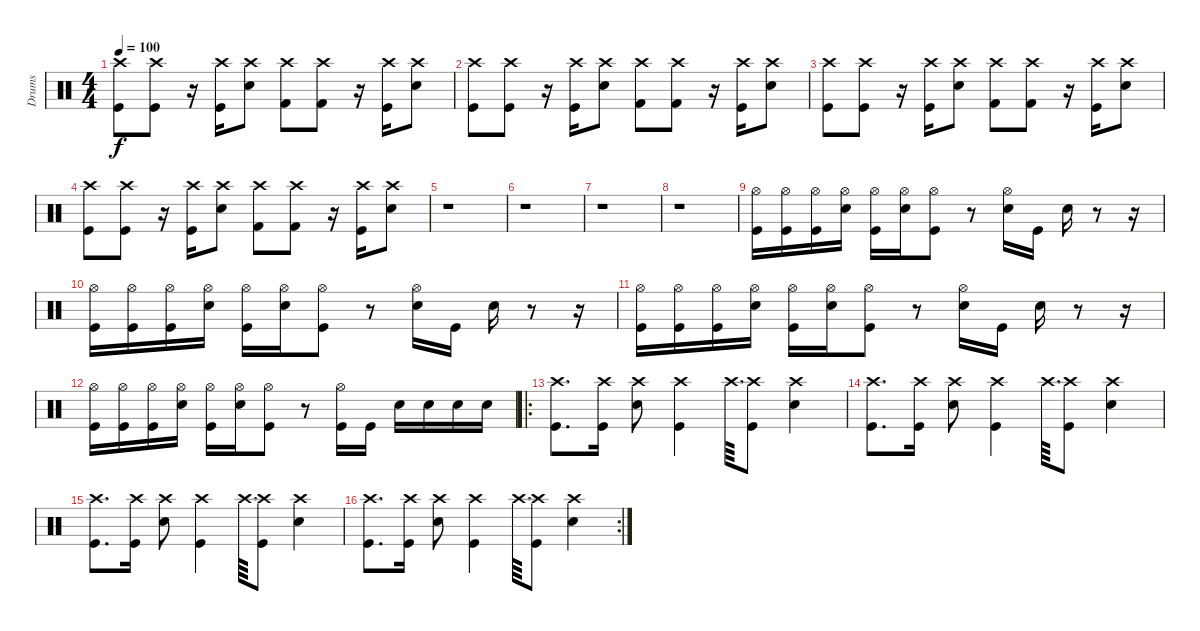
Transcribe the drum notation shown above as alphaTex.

\track ("Drums" "Drums") {instrument percussion}
\staff {score}
\articulation defaults
\ts (4 4)
\tempo 100
\clef neutral
\ks c
("Crash high (hit)" "Kick (hit)").8{dy f} ("Crash high (hit)" "Kick (hit)").8 r.16 ("Crash high (hit)" "Kick (hit)").16 ("Crash high (hit)" "Snare (hit) 2").8 ("Crash high (hit)" "Kick (hit) 2").8 ("Crash high (hit)" "Kick (hit) 2").8 r.16 ("Crash high (hit)" "Kick (hit)").16 ("Crash high (hit)" "Snare (hit) 2").8 |
("Crash high (hit)" "Kick (hit)").8 ("Crash high (hit)" "Kick (hit)").8 r.16 ("Crash high (hit)" "Kick (hit)").16 ("Crash high (hit)" "Snare (hit) 2").8 ("Crash high (hit)" "Kick (hit) 2").8 ("Crash high (hit)" "Kick (hit) 2").8 r.16 ("Crash high (hit)" "Kick (hit)").16 ("Crash high (hit)" "Snare (hit) 2").8 |
("Crash high (hit)" "Kick (hit)").8 ("Crash high (hit)" "Kick (hit)").8 r.16 ("Crash high (hit)" "Kick (hit)").16 ("Crash high (hit)" "Snare (hit) 2").8 ("Crash high (hit)" "Kick (hit) 2").8 ("Crash high (hit)" "Kick (hit) 2").8 r.16 ("Crash high (hit)" "Kick (hit)").16 ("Crash high (hit)" "Snare (hit) 2").8 |
("Crash high (hit)" "Kick (hit)").8 ("Crash high (hit)" "Kick (hit)").8 r.16 ("Crash high (hit)" "Kick (hit)").16 ("Crash high (hit)" "Snare (hit) 2").8 ("Crash high (hit)" "Kick (hit) 2").8 ("Crash high (hit)" "Kick (hit) 2").8 r.16 ("Crash high (hit)" "Kick (hit)").16 ("Crash high (hit)" "Snare (hit) 2").8 |
r.1 |
r.1 |
r.1 |
r.1 |
("Hi-Hat (open)" "Kick (hit)").16 ("Hi-Hat (open)" "Kick (hit)").16 ("Hi-Hat (open)" "Kick (hit)").16 ("Hi-Hat (open)" "Snare (hit) 2").16 ("Hi-Hat (open)" "Kick (hit)").16 ("Hi-Hat (open)" "Snare (hit) 2").16 ("Hi-Hat (open)" "Kick (hit)").8 r.8 ("Hi-Hat (open)" "Snare (hit) 2").16 "Kick (hit)".16 "Snare (hit) 2".16 r.8 r.16 |
("Hi-Hat (open)" "Kick (hit)").16 ("Hi-Hat (open)" "Kick (hit)").16 ("Hi-Hat (open)" "Kick (hit)").16 ("Hi-Hat (open)" "Snare (hit) 2").16 ("Hi-Hat (open)" "Kick (hit)").16 ("Hi-Hat (open)" "Snare (hit) 2").16 ("Hi-Hat (open)" "Kick (hit)").8 r.8 ("Hi-Hat (open)" "Snare (hit) 2").16 "Kick (hit)".16 "Snare (hit) 2".16 r.8 r.16 |
("Hi-Hat (open)" "Kick (hit)").16 ("Hi-Hat (open)" "Kick (hit)").16 ("Hi-Hat (open)" "Kick (hit)").16 ("Hi-Hat (open)" "Snare (hit) 2").16 ("Hi-Hat (open)" "Kick (hit)").16 ("Hi-Hat (open)" "Snare (hit) 2").16 ("Hi-Hat (open)" "Kick (hit)").8 r.8 ("Hi-Hat (open)" "Snare (hit) 2").16 "Kick (hit)".16 "Snare (hit) 2".16 r.8 r.16 |
("Hi-Hat (open)" "Kick (hit)").16 ("Hi-Hat (open)" "Kick (hit)").16 ("Hi-Hat (open)" "Kick (hit)").16 ("Hi-Hat (open)" "Snare (hit) 2").16 ("Hi-Hat (open)" "Kick (hit)").16 ("Hi-Hat (open)" "Snare (hit) 2").16 ("Hi-Hat (open)" "Kick (hit)").8 r.8 ("Hi-Hat (open)" "Kick (hit)").16 "Kick (hit)".16 "Snare (hit) 2".16 "Snare (hit) 2".16 "Snare (hit) 2".16 "Snare (hit) 2".16 |
\ro
("Crash high (hit)" "Kick (hit)").8{d} ("Crash high (hit)" "Kick (hit)").16 ("Crash high (hit)" "Snare (hit) 2").8 ("Crash high (hit)" "Kick (hit)").4 "Crash high (hit)".64{d} ("Crash high (hit)" "Kick (hit)").8 ("Crash high (hit)" "Snare (hit) 2").4 |
("Crash high (hit)" "Kick (hit)").8{d} ("Crash high (hit)" "Kick (hit)").16 ("Crash high (hit)" "Snare (hit) 2").8 ("Crash high (hit)" "Kick (hit)").4 "Crash high (hit)".64{d} ("Crash high (hit)" "Kick (hit)").8 ("Crash high (hit)" "Snare (hit) 2").4 |
("Crash high (hit)" "Kick (hit)").8{d} ("Crash high (hit)" "Kick (hit)").16 ("Crash high (hit)" "Snare (hit) 2").8 ("Crash high (hit)" "Kick (hit)").4 "Crash high (hit)".64{d} ("Crash high (hit)" "Kick (hit)").8 ("Crash high (hit)" "Snare (hit) 2").4 |
\rc 2
("Crash high (hit)" "Kick (hit)").8{d} ("Crash high (hit)" "Kick (hit)").16 ("Crash high (hit)" "Snare (hit) 2").8 ("Crash high (hit)" "Kick (hit)").4 "Crash high (hit)".64{d} ("Crash high (hit)" "Kick (hit)").8 ("Crash high (hit)" "Snare (hit) 2").4
